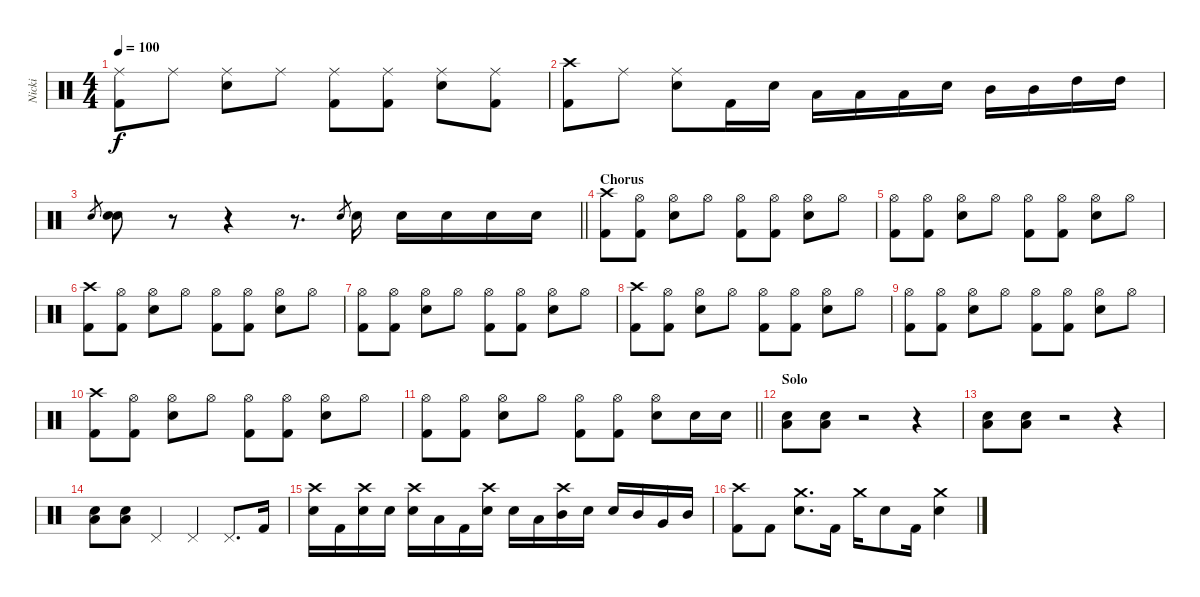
\track ("Nicki" "Nicki") {instrument percussion}
\staff {score}
\articulation defaults
\ts (4 4)
\tempo 100
\clef neutral
\ks c
("Ride (middle)" "Kick (hit) 2").8{dy f} "Ride (middle)".8 ("Ride (middle)" "Snare (hit) 2").8 "Ride (middle)".8 ("Ride (middle)" "Kick (hit) 2").8 ("Ride (middle)" "Kick (hit) 2").8 ("Ride (middle)" "Snare (hit) 2").8 ("Ride (middle)" "Kick (hit) 2").8 |
("Crash high (hit)" "Kick (hit) 2").8 "Ride (middle)".8 ("Ride (middle)" "Snare (hit) 2").8 "Kick (hit) 2".16 "Snare (hit) 2".16 "Low Floor Tom (hit)".16 "Low Floor Tom (hit)".16 "Low Floor Tom (hit)".16 "Snare (hit) 2".16 "Mid Tom (hit)".16 "Mid Tom (hit)".16 "High Tom (hit)".16 "High Tom (hit)".16 |
\barLineRight lightlight "Snare (hit) 2".8{gr}
("Snare (hit) 2" "Snare (hit) 2").8 r.8 r.4 r.8{d} "Snare (hit) 2".8{gr} "Snare (hit) 2".16 "Snare (hit) 2".16 "Snare (hit) 2".16 "Snare (hit) 2".16 "Snare (hit) 2".16 |
\section ("" "Chorus")
("Crash high (hit)" "Kick (hit) 2").8 ("Hi-Hat (open)" "Kick (hit) 2").8 ("Hi-Hat (open)" "Snare (hit) 2").8 "Hi-Hat (open)".8 ("Hi-Hat (open)" "Kick (hit) 2").8 ("Hi-Hat (open)" "Kick (hit) 2").8 ("Hi-Hat (open)" "Snare (hit) 2").8 "Hi-Hat (open)".8 |
("Hi-Hat (open)" "Kick (hit) 2").8 ("Hi-Hat (open)" "Kick (hit) 2").8 ("Hi-Hat (open)" "Snare (hit) 2").8 "Hi-Hat (open)".8 ("Hi-Hat (open)" "Kick (hit) 2").8 ("Hi-Hat (open)" "Kick (hit) 2").8 ("Hi-Hat (open)" "Snare (hit) 2").8 "Hi-Hat (open)".8 |
("Crash high (hit)" "Kick (hit) 2").8 ("Hi-Hat (open)" "Kick (hit) 2").8 ("Hi-Hat (open)" "Snare (hit) 2").8 "Hi-Hat (open)".8 ("Hi-Hat (open)" "Kick (hit) 2").8 ("Hi-Hat (open)" "Kick (hit) 2").8 ("Hi-Hat (open)" "Snare (hit) 2").8 "Hi-Hat (open)".8 |
("Hi-Hat (open)" "Kick (hit) 2").8 ("Hi-Hat (open)" "Kick (hit) 2").8 ("Hi-Hat (open)" "Snare (hit) 2").8 "Hi-Hat (open)".8 ("Hi-Hat (open)" "Kick (hit) 2").8 ("Hi-Hat (open)" "Kick (hit) 2").8 ("Hi-Hat (open)" "Snare (hit) 2").8 "Hi-Hat (open)".8 |
("Crash high (hit)" "Kick (hit) 2").8 ("Hi-Hat (open)" "Kick (hit) 2").8 ("Hi-Hat (open)" "Snare (hit) 2").8 "Hi-Hat (open)".8 ("Hi-Hat (open)" "Kick (hit) 2").8 ("Hi-Hat (open)" "Kick (hit) 2").8 ("Hi-Hat (open)" "Snare (hit) 2").8 "Hi-Hat (open)".8 |
("Hi-Hat (open)" "Kick (hit) 2").8 ("Hi-Hat (open)" "Kick (hit) 2").8 ("Hi-Hat (open)" "Snare (hit) 2").8 "Hi-Hat (open)".8 ("Hi-Hat (open)" "Kick (hit) 2").8 ("Hi-Hat (open)" "Kick (hit) 2").8 ("Hi-Hat (open)" "Snare (hit) 2").8 "Hi-Hat (open)".8 |
("Crash high (hit)" "Kick (hit) 2").8 ("Hi-Hat (open)" "Kick (hit) 2").8 ("Hi-Hat (open)" "Snare (hit) 2").8 "Hi-Hat (open)".8 ("Hi-Hat (open)" "Kick (hit) 2").8 ("Hi-Hat (open)" "Kick (hit) 2").8 ("Hi-Hat (open)" "Snare (hit) 2").8 "Hi-Hat (open)".8 |
\barLineRight lightlight
("Hi-Hat (open)" "Kick (hit) 2").8 ("Hi-Hat (open)" "Kick (hit) 2").8 ("Hi-Hat (open)" "Snare (hit) 2").8 "Hi-Hat (open)".8 ("Hi-Hat (open)" "Kick (hit) 2").8 ("Hi-Hat (open)" "Kick (hit) 2").8 ("Hi-Hat (open)" "Snare (hit) 2").8 "Snare (hit) 2".16 "Snare (hit) 2".16 |
\section ("" "Solo")
("Snare (hit) 2" "Low Floor Tom (hit)").8 ("Snare (hit) 2" "Low Floor Tom (hit)").8 r.2 r.4 |
("Snare (hit) 2" "Low Floor Tom (hit)").8 ("Snare (hit) 2" "Low Floor Tom (hit)").8 r.2 r.4 |
("Snare (hit) 2" "Low Floor Tom (hit)").8 ("Snare (hit) 2" "Low Floor Tom (hit)").8 "Pedal Hi-Hat (hit)".4 "Pedal Hi-Hat (hit)".4 "Pedal Hi-Hat (hit)".8{d} "Kick (hit) 2".16 |
("Crash high (hit)" "Snare (hit) 2").16 "Kick (hit) 2".16 ("Crash high (hit)" "Snare (hit) 2").16 "Snare (hit) 2".16 ("Crash high (hit)" "Snare (hit) 2").16 "Low Floor Tom (hit)".16 "Kick (hit) 2".16 ("Crash high (hit)" "Snare (hit) 2").16 "Snare (hit) 2".16 "Low Floor Tom (hit)".16 ("Crash high (hit)" "Mid Tom (hit)").16 "Snare (hit) 2".16 "Snare (hit) 2".16 "Mid Tom (hit)".16 "Very Low Tom (hit)".16 "Mid Tom (hit)".16 |
("Crash high (hit)" "Kick (hit) 2").8 "Kick (hit) 2".8 ("Crash medium (hit)" "Snare (hit) 2").8{d} "Kick (hit) 2".16 "Crash medium (hit)".16 "Snare (hit) 2".8 "Kick (hit) 2".16 ("Crash medium (hit)" "Snare (hit) 2").4
